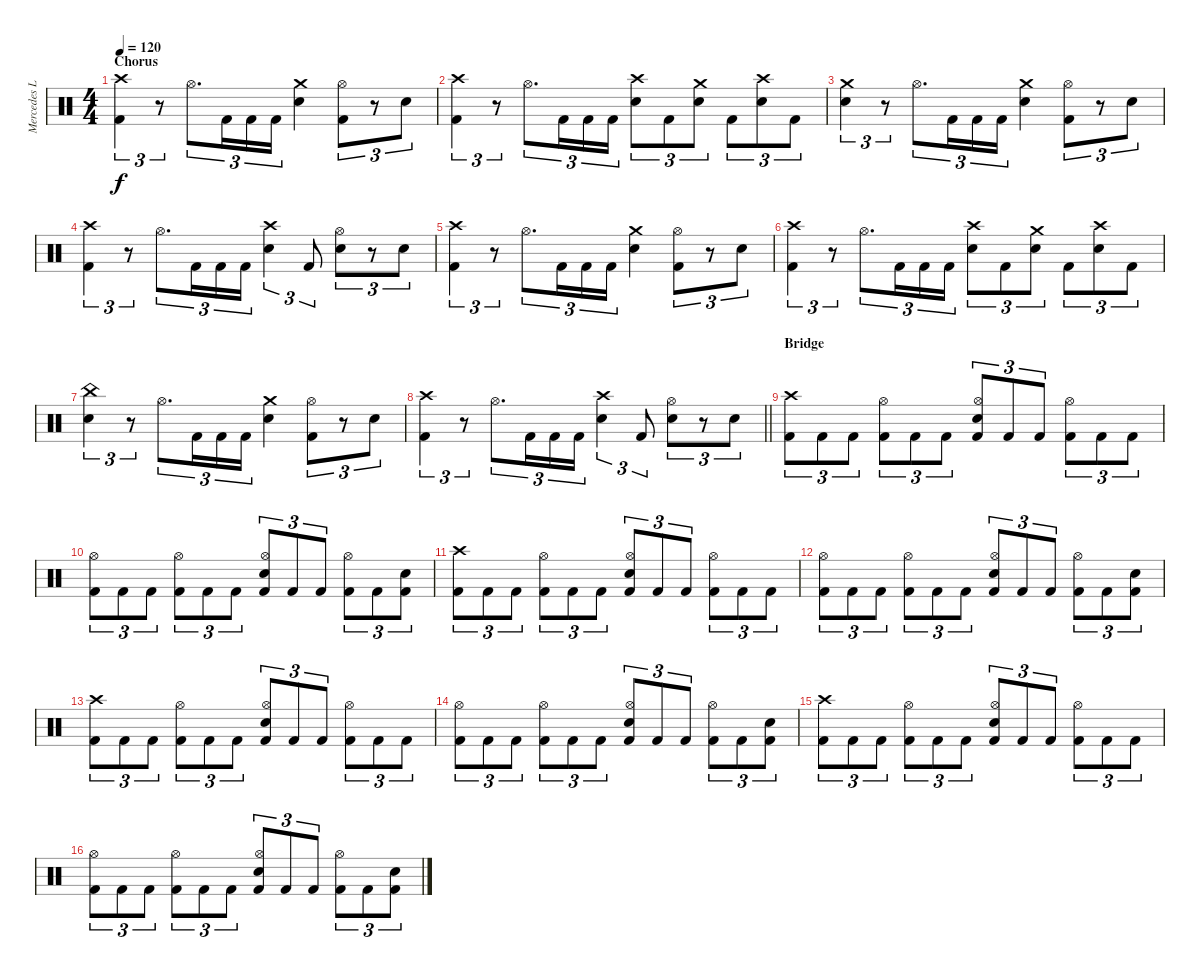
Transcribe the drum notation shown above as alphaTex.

\track ("Mercedes Lander" "Mercedes L") {instrument percussion}
\staff {score}
\articulation defaults
\ts (4 4)
\section ("" "Chorus")
\tempo 120
\clef neutral
\ks c
("Crash high (hit)" "Kick (hit) 2").4{tu (3 2) dy f} r.8{tu (3 2)} "Hi-Hat (open)".8{d tu (3 2)} "Kick (hit) 2".16{tu (3 2)} "Kick (hit) 2".16{tu (3 2)} "Kick (hit) 2".16{tu (3 2)} ("Crash medium (hit)" "Snare (hit) 2").4 ("Hi-Hat (open)" "Kick (hit) 2").8{tu (3 2)} r.8{tu (3 2)} "Snare (hit) 2".8{tu (3 2)} |
("Crash high (hit)" "Kick (hit) 2").4{tu (3 2)} r.8{tu (3 2)} "Hi-Hat (open)".8{d tu (3 2)} "Kick (hit) 2".16{tu (3 2)} "Kick (hit) 2".16{tu (3 2)} "Kick (hit) 2".16{tu (3 2)} ("Crash high (hit)" "Snare (hit) 2").8{tu (3 2)} "Kick (hit) 2".8{tu (3 2)} ("Crash medium (hit)" "Snare (hit) 2").8{tu (3 2)} "Kick (hit) 2".8{tu (3 2)} ("Crash high (hit)" "Snare (hit) 2").8{tu (3 2)} "Kick (hit) 2".8{tu (3 2)} |
("Crash medium (hit)" "Snare (hit) 2").4{tu (3 2)} r.8{tu (3 2)} "Hi-Hat (open)".8{d tu (3 2)} "Kick (hit) 2".16{tu (3 2)} "Kick (hit) 2".16{tu (3 2)} "Kick (hit) 2".16{tu (3 2)} ("Crash medium (hit)" "Snare (hit) 2").4 ("Hi-Hat (open)" "Kick (hit) 2").8{tu (3 2)} r.8{tu (3 2)} "Snare (hit) 2".8{tu (3 2)} |
("Crash high (hit)" "Kick (hit) 2").4{tu (3 2)} r.8{tu (3 2)} "Hi-Hat (open)".8{d tu (3 2)} "Kick (hit) 2".16{tu (3 2)} "Kick (hit) 2".16{tu (3 2)} "Kick (hit) 2".16{tu (3 2)} ("Crash high (hit)" "Snare (hit) 2").4{tu (3 2)} "Kick (hit) 2".8{tu (3 2)} ("Hi-Hat (open)" "Snare (hit) 2").8{tu (3 2)} r.8{tu (3 2)} "Snare (hit) 2".8{tu (3 2)} |
("Crash high (hit)" "Kick (hit) 2").4{tu (3 2)} r.8{tu (3 2)} "Hi-Hat (open)".8{d tu (3 2)} "Kick (hit) 2".16{tu (3 2)} "Kick (hit) 2".16{tu (3 2)} "Kick (hit) 2".16{tu (3 2)} ("Crash medium (hit)" "Snare (hit) 2").4 ("Hi-Hat (open)" "Kick (hit) 2").8{tu (3 2)} r.8{tu (3 2)} "Snare (hit) 2".8{tu (3 2)} |
("Crash high (hit)" "Kick (hit) 2").4{tu (3 2)} r.8{tu (3 2)} "Hi-Hat (open)".8{d tu (3 2)} "Kick (hit) 2".16{tu (3 2)} "Kick (hit) 2".16{tu (3 2)} "Kick (hit) 2".16{tu (3 2)} ("Crash high (hit)" "Snare (hit) 2").8{tu (3 2)} "Kick (hit) 2".8{tu (3 2)} ("Crash medium (hit)" "Snare (hit) 2").8{tu (3 2)} "Kick (hit) 2".8{tu (3 2)} ("Crash high (hit)" "Snare (hit) 2").8{tu (3 2)} "Kick (hit) 2".8{tu (3 2)} |
("China (hit)" "Snare (hit) 2").4{tu (3 2)} r.8{tu (3 2)} "Hi-Hat (open)".8{d tu (3 2)} "Kick (hit) 2".16{tu (3 2)} "Kick (hit) 2".16{tu (3 2)} "Kick (hit) 2".16{tu (3 2)} ("Crash medium (hit)" "Snare (hit) 2").4 ("Hi-Hat (open)" "Kick (hit) 2").8{tu (3 2)} r.8{tu (3 2)} "Snare (hit) 2".8{tu (3 2)} |
\barLineRight lightlight
("Crash high (hit)" "Kick (hit) 2").4{tu (3 2)} r.8{tu (3 2)} "Hi-Hat (open)".8{d tu (3 2)} "Kick (hit) 2".16{tu (3 2)} "Kick (hit) 2".16{tu (3 2)} "Kick (hit) 2".16{tu (3 2)} ("Crash high (hit)" "Snare (hit) 2").4{tu (3 2)} "Kick (hit) 2".8{tu (3 2)} ("Hi-Hat (open)" "Snare (hit) 2").8{tu (3 2)} r.8{tu (3 2)} "Snare (hit) 2".8{tu (3 2)} |
\section ("" "Bridge")
("Crash high (hit)" "Kick (hit) 2").8{tu (3 2)} "Kick (hit) 2".8{tu (3 2)} "Kick (hit) 2".8{tu (3 2)} ("Hi-Hat (open)" "Kick (hit) 2").8{tu (3 2)} "Kick (hit) 2".8{tu (3 2)} "Kick (hit) 2".8{tu (3 2)} ("Hi-Hat (open)" "Snare (hit) 2" "Kick (hit) 2").8{tu (3 2)} "Kick (hit) 2".8{tu (3 2)} "Kick (hit) 2".8{tu (3 2)} ("Hi-Hat (open)" "Kick (hit) 2").8{tu (3 2)} "Kick (hit) 2".8{tu (3 2)} "Kick (hit) 2".8{tu (3 2)} |
("Hi-Hat (open)" "Kick (hit) 2").8{tu (3 2)} "Kick (hit) 2".8{tu (3 2)} "Kick (hit) 2".8{tu (3 2)} ("Hi-Hat (open)" "Kick (hit) 2").8{tu (3 2)} "Kick (hit) 2".8{tu (3 2)} "Kick (hit) 2".8{tu (3 2)} ("Hi-Hat (open)" "Snare (hit) 2" "Kick (hit) 2").8{tu (3 2)} "Kick (hit) 2".8{tu (3 2)} "Kick (hit) 2".8{tu (3 2)} ("Hi-Hat (open)" "Kick (hit) 2").8{tu (3 2)} "Kick (hit) 2".8{tu (3 2)} ("Snare (hit) 2" "Kick (hit) 2").8{tu (3 2)} |
("Crash high (hit)" "Kick (hit) 2").8{tu (3 2)} "Kick (hit) 2".8{tu (3 2)} "Kick (hit) 2".8{tu (3 2)} ("Hi-Hat (open)" "Kick (hit) 2").8{tu (3 2)} "Kick (hit) 2".8{tu (3 2)} "Kick (hit) 2".8{tu (3 2)} ("Hi-Hat (open)" "Snare (hit) 2" "Kick (hit) 2").8{tu (3 2)} "Kick (hit) 2".8{tu (3 2)} "Kick (hit) 2".8{tu (3 2)} ("Hi-Hat (open)" "Kick (hit) 2").8{tu (3 2)} "Kick (hit) 2".8{tu (3 2)} "Kick (hit) 2".8{tu (3 2)} |
("Hi-Hat (open)" "Kick (hit) 2").8{tu (3 2)} "Kick (hit) 2".8{tu (3 2)} "Kick (hit) 2".8{tu (3 2)} ("Hi-Hat (open)" "Kick (hit) 2").8{tu (3 2)} "Kick (hit) 2".8{tu (3 2)} "Kick (hit) 2".8{tu (3 2)} ("Hi-Hat (open)" "Snare (hit) 2" "Kick (hit) 2").8{tu (3 2)} "Kick (hit) 2".8{tu (3 2)} "Kick (hit) 2".8{tu (3 2)} ("Hi-Hat (open)" "Kick (hit) 2").8{tu (3 2)} "Kick (hit) 2".8{tu (3 2)} ("Snare (hit) 2" "Kick (hit) 2").8{tu (3 2)} |
("Crash high (hit)" "Kick (hit) 2").8{tu (3 2)} "Kick (hit) 2".8{tu (3 2)} "Kick (hit) 2".8{tu (3 2)} ("Hi-Hat (open)" "Kick (hit) 2").8{tu (3 2)} "Kick (hit) 2".8{tu (3 2)} "Kick (hit) 2".8{tu (3 2)} ("Hi-Hat (open)" "Snare (hit) 2" "Kick (hit) 2").8{tu (3 2)} "Kick (hit) 2".8{tu (3 2)} "Kick (hit) 2".8{tu (3 2)} ("Hi-Hat (open)" "Kick (hit) 2").8{tu (3 2)} "Kick (hit) 2".8{tu (3 2)} "Kick (hit) 2".8{tu (3 2)} |
("Hi-Hat (open)" "Kick (hit) 2").8{tu (3 2)} "Kick (hit) 2".8{tu (3 2)} "Kick (hit) 2".8{tu (3 2)} ("Hi-Hat (open)" "Kick (hit) 2").8{tu (3 2)} "Kick (hit) 2".8{tu (3 2)} "Kick (hit) 2".8{tu (3 2)} ("Hi-Hat (open)" "Snare (hit) 2" "Kick (hit) 2").8{tu (3 2)} "Kick (hit) 2".8{tu (3 2)} "Kick (hit) 2".8{tu (3 2)} ("Hi-Hat (open)" "Kick (hit) 2").8{tu (3 2)} "Kick (hit) 2".8{tu (3 2)} ("Snare (hit) 2" "Kick (hit) 2").8{tu (3 2)} |
("Crash high (hit)" "Kick (hit) 2").8{tu (3 2)} "Kick (hit) 2".8{tu (3 2)} "Kick (hit) 2".8{tu (3 2)} ("Hi-Hat (open)" "Kick (hit) 2").8{tu (3 2)} "Kick (hit) 2".8{tu (3 2)} "Kick (hit) 2".8{tu (3 2)} ("Hi-Hat (open)" "Snare (hit) 2" "Kick (hit) 2").8{tu (3 2)} "Kick (hit) 2".8{tu (3 2)} "Kick (hit) 2".8{tu (3 2)} ("Hi-Hat (open)" "Kick (hit) 2").8{tu (3 2)} "Kick (hit) 2".8{tu (3 2)} "Kick (hit) 2".8{tu (3 2)} |
("Hi-Hat (open)" "Kick (hit) 2").8{tu (3 2)} "Kick (hit) 2".8{tu (3 2)} "Kick (hit) 2".8{tu (3 2)} ("Hi-Hat (open)" "Kick (hit) 2").8{tu (3 2)} "Kick (hit) 2".8{tu (3 2)} "Kick (hit) 2".8{tu (3 2)} ("Hi-Hat (open)" "Snare (hit) 2" "Kick (hit) 2").8{tu (3 2)} "Kick (hit) 2".8{tu (3 2)} "Kick (hit) 2".8{tu (3 2)} ("Hi-Hat (open)" "Kick (hit) 2").8{tu (3 2)} "Kick (hit) 2".8{tu (3 2)} ("Snare (hit) 2" "Kick (hit) 2").8{tu (3 2)}
